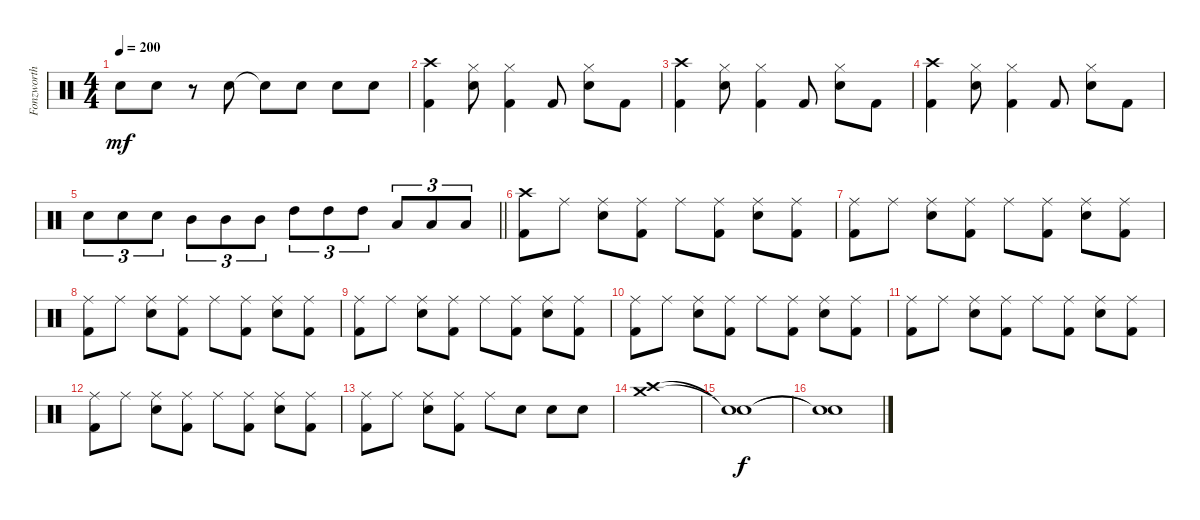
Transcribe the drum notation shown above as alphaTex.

\track ("Fonzworth Fred" "Fonzworth ") {instrument percussion}
\staff {score}
\articulation defaults
\ts (4 4)
\tempo 200
\clef neutral
\ks c "Snare (hit) 2".8{dy mf} "Snare (hit) 2".8
r.8 "Snare (hit) 2".8 "Snare (hit)"{t}.8 "Snare (hit) 2".8 "Snare (hit) 2".8 "Snare (hit) 2".8 |
("Crash high (hit)" "Kick (hit) 2").4 ("Hi-Hat (closed)" "Snare (hit) 2").8 ("Hi-Hat (closed)" "Kick (hit) 2").4 "Kick (hit) 2".8 ("Hi-Hat (closed)" "Snare (hit) 2").8 "Kick (hit) 2".8 |
("Crash high (hit)" "Kick (hit) 2").4 ("Hi-Hat (closed)" "Snare (hit) 2").8 ("Hi-Hat (closed)" "Kick (hit) 2").4 "Kick (hit) 2".8 ("Hi-Hat (closed)" "Snare (hit) 2").8 "Kick (hit) 2".8 |
("Crash high (hit)" "Kick (hit) 2").4 ("Hi-Hat (closed)" "Snare (hit) 2").8 ("Hi-Hat (closed)" "Kick (hit) 2").4 "Kick (hit) 2".8 ("Hi-Hat (closed)" "Snare (hit) 2").8 "Kick (hit) 2".8 |
\barLineRight lightlight "Snare (hit) 2".8{tu (3 2)} "Snare (hit) 2".8{tu (3 2)} "Snare (hit) 2".8{tu (3 2)} "Mid Tom (hit)".8{tu (3 2)} "Mid Tom (hit)".8{tu (3 2)} "Mid Tom (hit)".8{tu (3 2)} "High Tom (hit)".8{tu (3 2)} "High Tom (hit)".8{tu (3 2)} "High Tom (hit)".8{tu (3 2)} "Low Floor Tom (hit)".8{tu (3 2)} "Low Floor Tom (hit)".8{tu (3 2)} "Low Floor Tom (hit)".8{tu (3 2)}
|
("Crash high (hit)" "Kick (hit) 2").8 "Ride (middle)".8 ("Ride (middle)" "Snare (hit) 2").8 ("Ride (middle)" "Kick (hit) 2").8 "Ride (middle)".8 ("Ride (middle)" "Kick (hit) 2").8 ("Ride (middle)" "Snare (hit) 2").8 ("Ride (middle)" "Kick (hit) 2").8 |
("Ride (middle)" "Kick (hit) 2").8 "Ride (middle)".8 ("Ride (middle)" "Snare (hit) 2").8 ("Ride (middle)" "Kick (hit) 2").8 "Ride (middle)".8 ("Ride (middle)" "Kick (hit) 2").8 ("Ride (middle)" "Snare (hit) 2").8 ("Ride (middle)" "Kick (hit) 2").8 |
("Ride (middle)" "Kick (hit) 2").8 "Ride (middle)".8 ("Ride (middle)" "Snare (hit) 2").8 ("Ride (middle)" "Kick (hit) 2").8 "Ride (middle)".8 ("Ride (middle)" "Kick (hit) 2").8 ("Ride (middle)" "Snare (hit) 2").8 ("Ride (middle)" "Kick (hit) 2").8 |
("Ride (middle)" "Kick (hit) 2").8 "Ride (middle)".8 ("Ride (middle)" "Snare (hit) 2").8 ("Ride (middle)" "Kick (hit) 2").8 "Ride (middle)".8 ("Ride (middle)" "Kick (hit) 2").8 ("Ride (middle)" "Snare (hit) 2").8 ("Ride (middle)" "Kick (hit) 2").8 |
("Ride (middle)" "Kick (hit) 2").8 "Ride (middle)".8 ("Ride (middle)" "Snare (hit) 2").8 ("Ride (middle)" "Kick (hit) 2").8 "Ride (middle)".8 ("Ride (middle)" "Kick (hit) 2").8 ("Ride (middle)" "Snare (hit) 2").8 ("Ride (middle)" "Kick (hit) 2").8 |
("Ride (middle)" "Kick (hit) 2").8 "Ride (middle)".8 ("Ride (middle)" "Snare (hit) 2").8 ("Ride (middle)" "Kick (hit) 2").8 "Ride (middle)".8 ("Ride (middle)" "Kick (hit) 2").8 ("Ride (middle)" "Snare (hit) 2").8 ("Ride (middle)" "Kick (hit) 2").8 |
("Ride (middle)" "Kick (hit) 2").8 "Ride (middle)".8 ("Ride (middle)" "Snare (hit) 2").8 ("Ride (middle)" "Kick (hit) 2").8 "Ride (middle)".8 ("Ride (middle)" "Kick (hit) 2").8 ("Ride (middle)" "Snare (hit) 2").8 ("Ride (middle)" "Kick (hit) 2").8 |
("Ride (middle)" "Kick (hit) 2").8 "Ride (middle)".8 ("Ride (middle)" "Snare (hit) 2").8 ("Ride (middle)" "Kick (hit) 2").8 "Ride (middle)".8 "Snare (hit) 2".8 "Snare (hit) 2".8 "Snare (hit) 2".8 |
("Crash high (hit)" "Crash medium (hit)").1 |
("Snare (hit)"{t} "Snare (hit)"{t}).1{dy f} |
("Snare (hit)"{t} "Snare (hit)"{t}).1
